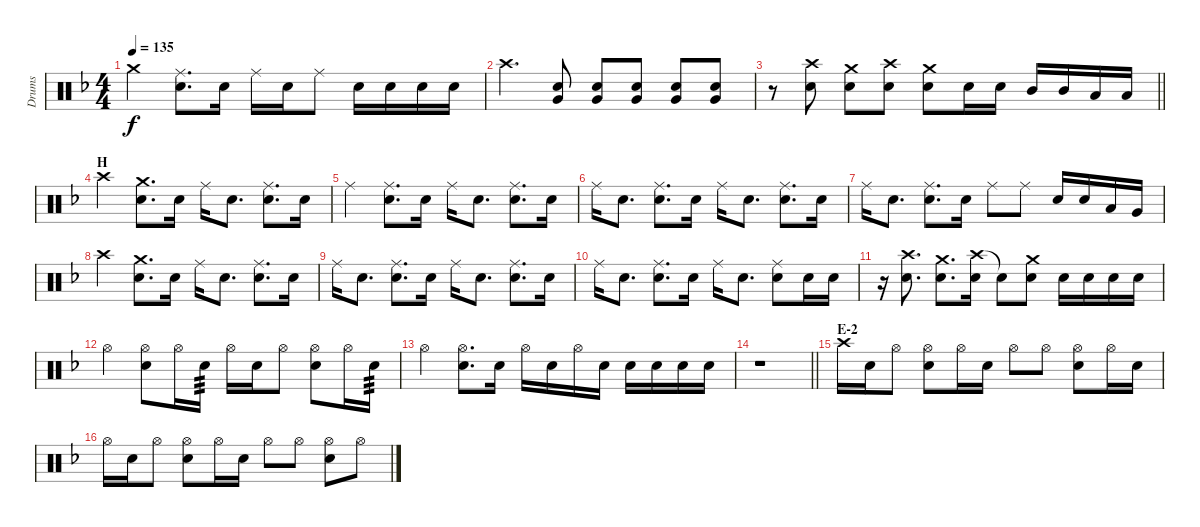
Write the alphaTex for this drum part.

\track ("Drums" "Drums") {instrument percussion}
\staff {score}
\articulation defaults
\ts (4 4)
\tempo 135
\clef neutral
\ks f "Crash medium (hit)".4{dy f}
("Ride (middle)" "Snare (hit) 2").8{d} "Snare (hit) 2".16 "Ride (middle)".16 "Snare (hit) 2".16 "Ride (middle)".8 "Snare (hit) 2".16 "Snare (hit) 2".16 "Snare (hit) 2".16 "Snare (hit) 2".16 |
"Crash high (hit)".4{d} ("Snare (hit) 2" "Very Low Tom (hit)").8 ("Snare (hit) 2" "Very Low Tom (hit)").8 ("Snare (hit) 2" "Very Low Tom (hit)").8 ("Snare (hit) 2" "Very Low Tom (hit)").8 ("Snare (hit) 2" "Very Low Tom (hit)").8 |
\barLineRight lightlight
r.8 ("Crash high (hit)" "Snare (hit) 2").8 ("Crash medium (hit)" "Snare (hit) 2").8 ("Crash high (hit)" "Snare (hit) 2").8 ("Crash medium (hit)" "Snare (hit) 2").8 "Snare (hit) 2".16 "Snare (hit) 2".16 "Mid Tom (hit)".16 "Mid Tom (hit)".16 "Low Tom (hit)".16 "Low Tom (hit)".16 |
\section ("" "H")
"Crash high (hit)".4 ("Crash medium (hit)" "Snare (hit) 2").8{d} "Snare (hit) 2".16 "Ride (middle)".16 "Snare (hit) 2".8{d} ("Ride (middle)" "Snare (hit) 2").8{d} "Snare (hit) 2".16 |
"Ride (middle)".4 ("Ride (middle)" "Snare (hit) 2").8{d} "Snare (hit) 2".16 "Ride (middle)".16 "Snare (hit) 2".8{d} ("Ride (middle)" "Snare (hit) 2").8{d} "Snare (hit) 2".16 |
"Ride (middle)".16 "Snare (hit) 2".8{d} ("Ride (middle)" "Snare (hit) 2").8{d} "Snare (hit) 2".16 "Ride (middle)".16 "Snare (hit) 2".8{d} ("Ride (middle)" "Snare (hit) 2").8{d} "Snare (hit) 2".16 |
"Ride (middle)".16 "Snare (hit) 2".8{d} ("Ride (middle)" "Snare (hit) 2").8{d} "Snare (hit) 2".16 "Ride (middle)".8 "Ride (middle)".8 "Snare (hit) 2".16 "Snare (hit) 2".16 "Low Tom (hit)".16 "Very Low Tom (hit)".16 |
"Crash high (hit)".4 ("Crash medium (hit)" "Snare (hit) 2").8{d} "Snare (hit) 2".16 "Ride (middle)".16 "Snare (hit) 2".8{d} ("Ride (middle)" "Snare (hit) 2").8{d} "Snare (hit) 2".16 |
"Ride (middle)".16 "Snare (hit) 2".8{d} ("Ride (middle)" "Snare (hit) 2").8{d} "Snare (hit) 2".16 "Ride (middle)".16 "Snare (hit) 2".8{d} ("Ride (middle)" "Snare (hit) 2").8{d} "Snare (hit) 2".16 |
"Ride (middle)".16 "Snare (hit) 2".8{d} ("Ride (middle)" "Snare (hit) 2").8{d} "Snare (hit) 2".16 "Ride (middle)".16 "Snare (hit) 2".8{d} ("Ride (middle)" "Snare (hit) 2").8 "Snare (hit) 2".16 "Snare (hit) 2".16 |
r.16 ("Crash high (hit)" "Snare (hit) 2").8{d} ("Crash medium (hit)" "Snare (hit) 2").8{d} ("Crash high (hit)" "Snare (hit) 2").16 "Snare (hit)"{t}.8 ("Crash medium (hit)" "Snare (hit) 2").8 "Snare (hit) 2".16 "Snare (hit) 2".16 "Snare (hit) 2".16 "Snare (hit) 2".16 |
"Hi-Hat (open)".4 ("Hi-Hat (open)" "Snare (hit) 2").8 "Hi-Hat (open)".16 "Snare (hit) 2".16{tp 3} "Hi-Hat (open)".16 "Snare (hit) 2".16 "Hi-Hat (open)".8 ("Hi-Hat (open)" "Snare (hit) 2").8 "Hi-Hat (open)".16 "Snare (hit) 2".16{tp 3} |
"Hi-Hat (open)".4 ("Hi-Hat (open)" "Snare (hit) 2").8{d} "Snare (hit) 2".16 "Hi-Hat (open)".16 "Snare (hit) 2".16 "Hi-Hat (open)".16 "Snare (hit) 2".16 "Snare (hit) 2".16 "Snare (hit) 2".16 "Snare (hit) 2".16 "Snare (hit) 2".16 |
\barLineRight lightlight
r.1 |
\section ("" "E-2")
"Crash high (hit)".16 "Snare (hit) 2".16 "Hi-Hat (open)".8 ("Hi-Hat (open)" "Snare (hit) 2").8 "Hi-Hat (open)".16 "Snare (hit) 2".16 "Hi-Hat (open)".8 "Hi-Hat (open)".8 ("Hi-Hat (open)" "Snare (hit) 2").8 "Hi-Hat (open)".16 "Snare (hit) 2".16 |
"Hi-Hat (open)".16 "Snare (hit) 2".16 "Hi-Hat (open)".8 ("Hi-Hat (open)" "Snare (hit) 2").8 "Hi-Hat (open)".16 "Snare (hit) 2".16 "Hi-Hat (open)".8 "Hi-Hat (open)".8 ("Hi-Hat (open)" "Snare (hit) 2").8 "Hi-Hat (open)".8
